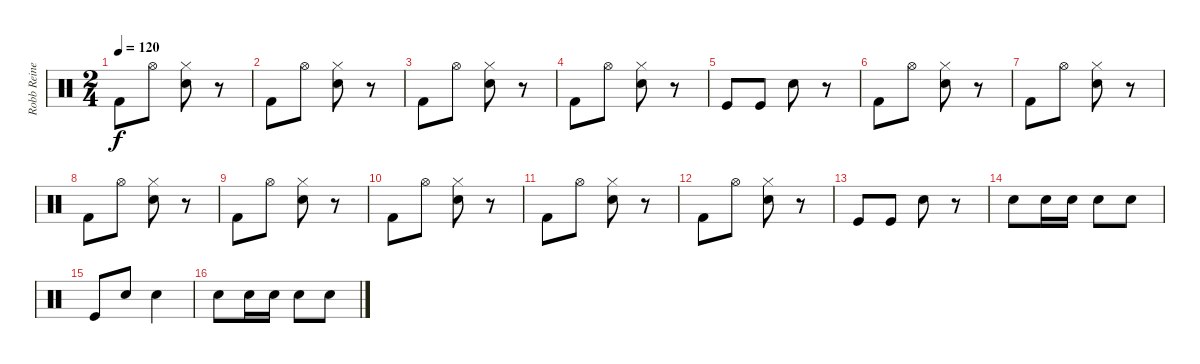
\track ("Robb Reiner" "Robb Reine") {instrument percussion}
\staff {score}
\articulation defaults
\ts (2 4)
\tempo 120
\clef neutral
\ks c "Kick (hit) 2".8{dy f} "Hi-Hat (open)".8
("Hi-Hat (closed)" "Snare (hit) 2").8 r.8 |
"Kick (hit) 2".8 "Hi-Hat (open)".8 ("Hi-Hat (closed)" "Snare (hit) 2").8 r.8 |
"Kick (hit) 2".8 "Hi-Hat (open)".8 ("Hi-Hat (closed)" "Snare (hit) 2").8 r.8 |
"Kick (hit) 2".8 "Hi-Hat (open)".8 ("Hi-Hat (closed)" "Snare (hit) 2").8 r.8 |
"Kick (hit)".8 "Kick (hit)".8 "Snare (hit) 2".8 r.8 |
"Kick (hit) 2".8 "Hi-Hat (open)".8 ("Hi-Hat (closed)" "Snare (hit) 2").8 r.8 |
"Kick (hit) 2".8 "Hi-Hat (open)".8 ("Hi-Hat (closed)" "Snare (hit) 2").8 r.8 |
"Kick (hit) 2".8 "Hi-Hat (open)".8 ("Hi-Hat (closed)" "Snare (hit) 2").8 r.8 |
"Kick (hit) 2".8 "Hi-Hat (open)".8 ("Hi-Hat (closed)" "Snare (hit) 2").8 r.8 |
"Kick (hit) 2".8 "Hi-Hat (open)".8 ("Hi-Hat (closed)" "Snare (hit) 2").8 r.8 |
"Kick (hit) 2".8 "Hi-Hat (open)".8 ("Hi-Hat (closed)" "Snare (hit) 2").8 r.8 |
"Kick (hit) 2".8 "Hi-Hat (open)".8 ("Hi-Hat (closed)" "Snare (hit) 2").8 r.8 |
"Kick (hit)".8 "Kick (hit)".8 "Snare (hit) 2".8 r.8 |
"Snare (hit) 2".8 "Snare (hit) 2".16 "Snare (hit) 2".16 "Snare (hit) 2".8 "Snare (hit) 2".8 |
"Kick (hit)".8 "Snare (hit) 2".8 "Snare (hit) 2".4 |
"Snare (hit) 2".8 "Snare (hit) 2".16 "Snare (hit) 2".16 "Snare (hit) 2".8 "Snare (hit) 2".8
